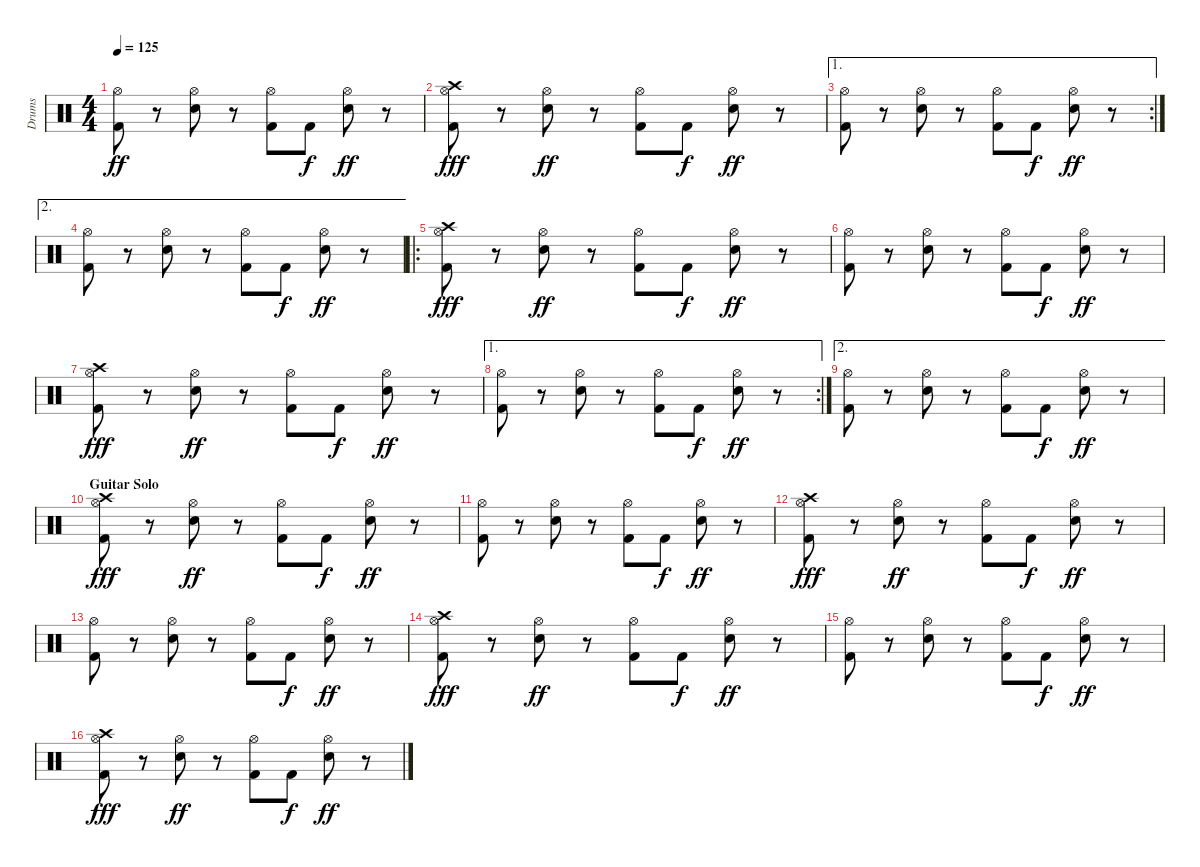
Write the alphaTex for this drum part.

\track ("Drums" "Drums") {instrument percussion}
\staff {score}
\articulation defaults
\ts (4 4)
\tempo 125
\clef neutral
\ks c
("Hi-Hat (open)" "Kick (hit) 2").8{dy ff} r.8 ("Hi-Hat (open)" "Snare (hit) 2").8 r.8 ("Hi-Hat (open)" "Kick (hit) 2").8 "Kick (hit) 2".8{dy f} ("Hi-Hat (open)" "Snare (hit) 2").8{dy ff} r.8 |
("Hi-Hat (open)" "Kick (hit) 2" "Crash high (hit)").8{dy fff} r.8 ("Hi-Hat (open)" "Snare (hit) 2").8{dy ff} r.8 ("Hi-Hat (open)" "Kick (hit) 2").8 "Kick (hit) 2".8{dy f} ("Hi-Hat (open)" "Snare (hit) 2").8{dy ff} r.8 |
\ae 1
\rc 2
("Hi-Hat (open)" "Kick (hit) 2").8 r.8 ("Hi-Hat (open)" "Snare (hit) 2").8 r.8 ("Hi-Hat (open)" "Kick (hit) 2").8 "Kick (hit) 2".8{dy f} ("Hi-Hat (open)" "Snare (hit) 2").8{dy ff} r.8 |
\ae 2
("Hi-Hat (open)" "Kick (hit) 2").8 r.8 ("Hi-Hat (open)" "Snare (hit) 2").8 r.8 ("Hi-Hat (open)" "Kick (hit) 2").8 "Kick (hit) 2".8{dy f} ("Hi-Hat (open)" "Snare (hit) 2").8{dy ff} r.8 |
\ro
("Hi-Hat (open)" "Kick (hit) 2" "Crash high (hit)").8{dy fff} r.8 ("Hi-Hat (open)" "Snare (hit) 2").8{dy ff} r.8 ("Hi-Hat (open)" "Kick (hit) 2").8 "Kick (hit) 2".8{dy f} ("Hi-Hat (open)" "Snare (hit) 2").8{dy ff} r.8 |
("Hi-Hat (open)" "Kick (hit) 2").8 r.8 ("Hi-Hat (open)" "Snare (hit) 2").8 r.8 ("Hi-Hat (open)" "Kick (hit) 2").8 "Kick (hit) 2".8{dy f} ("Hi-Hat (open)" "Snare (hit) 2").8{dy ff} r.8 |
("Hi-Hat (open)" "Kick (hit) 2" "Crash high (hit)").8{dy fff} r.8 ("Hi-Hat (open)" "Snare (hit) 2").8{dy ff} r.8 ("Hi-Hat (open)" "Kick (hit) 2").8 "Kick (hit) 2".8{dy f} ("Hi-Hat (open)" "Snare (hit) 2").8{dy ff} r.8 |
\ae 1
\rc 2
("Hi-Hat (open)" "Kick (hit) 2").8 r.8 ("Hi-Hat (open)" "Snare (hit) 2").8 r.8 ("Hi-Hat (open)" "Kick (hit) 2").8 "Kick (hit) 2".8{dy f} ("Hi-Hat (open)" "Snare (hit) 2").8{dy ff} r.8 |
\ae 2
("Hi-Hat (open)" "Kick (hit) 2").8 r.8 ("Hi-Hat (open)" "Snare (hit) 2").8 r.8 ("Hi-Hat (open)" "Kick (hit) 2").8 "Kick (hit) 2".8{dy f} ("Hi-Hat (open)" "Snare (hit) 2").8{dy ff} r.8 |
\section ("" "Guitar Solo")
("Hi-Hat (open)" "Kick (hit) 2" "Crash high (hit)").8{dy fff} r.8 ("Hi-Hat (open)" "Snare (hit) 2").8{dy ff} r.8 ("Hi-Hat (open)" "Kick (hit) 2").8 "Kick (hit) 2".8{dy f} ("Hi-Hat (open)" "Snare (hit) 2").8{dy ff} r.8 |
("Hi-Hat (open)" "Kick (hit) 2").8 r.8 ("Hi-Hat (open)" "Snare (hit) 2").8 r.8 ("Hi-Hat (open)" "Kick (hit) 2").8 "Kick (hit) 2".8{dy f} ("Hi-Hat (open)" "Snare (hit) 2").8{dy ff} r.8 |
("Hi-Hat (open)" "Kick (hit) 2" "Crash high (hit)").8{dy fff} r.8 ("Hi-Hat (open)" "Snare (hit) 2").8{dy ff} r.8 ("Hi-Hat (open)" "Kick (hit) 2").8 "Kick (hit) 2".8{dy f} ("Hi-Hat (open)" "Snare (hit) 2").8{dy ff} r.8 |
("Hi-Hat (open)" "Kick (hit) 2").8 r.8 ("Hi-Hat (open)" "Snare (hit) 2").8 r.8 ("Hi-Hat (open)" "Kick (hit) 2").8 "Kick (hit) 2".8{dy f} ("Hi-Hat (open)" "Snare (hit) 2").8{dy ff} r.8 |
("Hi-Hat (open)" "Kick (hit) 2" "Crash high (hit)").8{dy fff} r.8 ("Hi-Hat (open)" "Snare (hit) 2").8{dy ff} r.8 ("Hi-Hat (open)" "Kick (hit) 2").8 "Kick (hit) 2".8{dy f} ("Hi-Hat (open)" "Snare (hit) 2").8{dy ff} r.8 |
("Hi-Hat (open)" "Kick (hit) 2").8 r.8 ("Hi-Hat (open)" "Snare (hit) 2").8 r.8 ("Hi-Hat (open)" "Kick (hit) 2").8 "Kick (hit) 2".8{dy f} ("Hi-Hat (open)" "Snare (hit) 2").8{dy ff} r.8 |
("Hi-Hat (open)" "Kick (hit) 2" "Crash high (hit)").8{dy fff} r.8 ("Hi-Hat (open)" "Snare (hit) 2").8{dy ff} r.8 ("Hi-Hat (open)" "Kick (hit) 2").8 "Kick (hit) 2".8{dy f} ("Hi-Hat (open)" "Snare (hit) 2").8{dy ff} r.8
